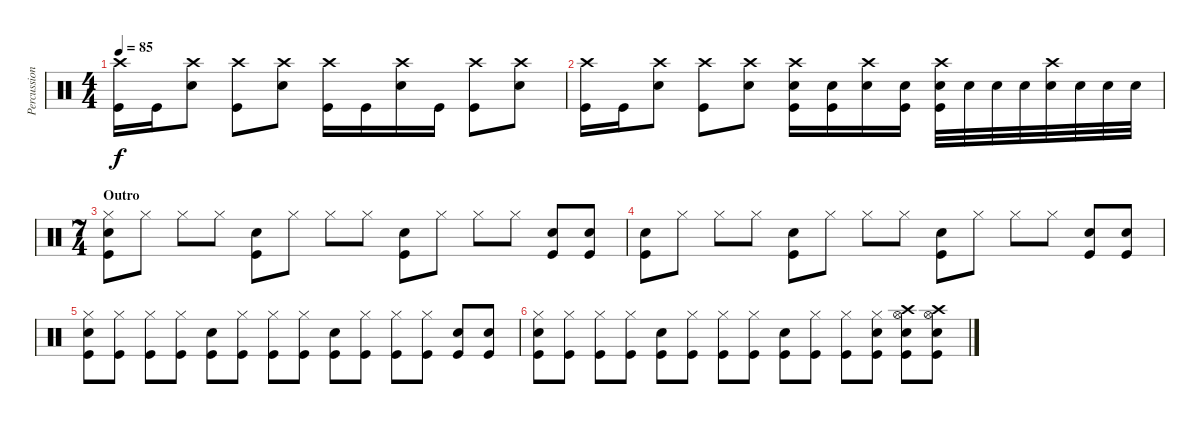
\track ("Percussion" "Percussion") {instrument percussion}
\staff {score}
\articulation defaults
\ts (4 4)
\tempo 85
\clef neutral
\ks c
("Crash high (hit)" "Kick (hit)").16{dy f} "Kick (hit)".16 ("Crash high (hit)" "Snare (hit) 2").8 ("Crash high (hit)" "Kick (hit)").8 ("Crash high (hit)" "Snare (hit) 2").8 ("Crash high (hit)" "Kick (hit)").16 "Kick (hit)".16 ("Crash high (hit)" "Snare (hit) 2").16 "Kick (hit)".16 ("Crash high (hit)" "Kick (hit)").8 ("Crash high (hit)" "Snare (hit) 2").8 |
("Crash high (hit)" "Kick (hit)").16 "Kick (hit)".16 ("Crash high (hit)" "Snare (hit) 2").8 ("Crash high (hit)" "Kick (hit)").8 ("Crash high (hit)" "Snare (hit) 2").8 ("Crash high (hit)" "Snare (hit) 2" "Kick (hit)").16 ("Snare (hit) 2" "Kick (hit)").16 ("Crash high (hit)" "Snare (hit) 2").16 ("Snare (hit) 2" "Kick (hit)").16 ("Crash high (hit)" "Snare (hit) 2" "Kick (hit)").32 "Snare (hit) 2".32 "Snare (hit) 2".32 "Snare (hit) 2".32 ("Crash high (hit)" "Snare (hit) 2").32 "Snare (hit) 2".32 "Snare (hit) 2".32 "Snare (hit) 2".32 |
\ts (7 4)
\section ("" "Outro")
("Hi-Hat (closed)" "Snare (hit) 2" "Kick (hit)").8 "Hi-Hat (closed)".8 "Hi-Hat (closed)".8 "Hi-Hat (closed)".8 ("Snare (hit) 2" "Kick (hit)").8 "Hi-Hat (closed)".8 "Hi-Hat (closed)".8 "Hi-Hat (closed)".8 ("Snare (hit) 2" "Kick (hit)").8 "Hi-Hat (closed)".8 "Hi-Hat (closed)".8 "Hi-Hat (closed)".8 ("Snare (hit) 2" "Kick (hit)").8 ("Snare (hit) 2" "Kick (hit)").8 |
("Snare (hit) 2" "Kick (hit)").8 "Hi-Hat (closed)".8 "Hi-Hat (closed)".8 "Hi-Hat (closed)".8 ("Snare (hit) 2" "Kick (hit)").8 "Hi-Hat (closed)".8 "Hi-Hat (closed)".8 "Hi-Hat (closed)".8 ("Snare (hit) 2" "Kick (hit)").8 "Hi-Hat (closed)".8 "Hi-Hat (closed)".8 "Hi-Hat (closed)".8 ("Snare (hit) 2" "Kick (hit)").8 ("Snare (hit) 2" "Kick (hit)").8 |
("Hi-Hat (closed)" "Snare (hit) 2" "Kick (hit)").8 ("Hi-Hat (closed)" "Kick (hit)").8 ("Hi-Hat (closed)" "Kick (hit)").8 ("Hi-Hat (closed)" "Kick (hit)").8 ("Snare (hit) 2" "Kick (hit)").8 ("Hi-Hat (closed)" "Kick (hit)").8 ("Hi-Hat (closed)" "Kick (hit)").8 ("Hi-Hat (closed)" "Kick (hit)").8 ("Snare (hit) 2" "Kick (hit)").8 ("Hi-Hat (closed)" "Kick (hit)").8 ("Hi-Hat (closed)" "Kick (hit)").8 ("Hi-Hat (closed)" "Kick (hit)").8 ("Snare (hit) 2" "Kick (hit)").8 ("Snare (hit) 2" "Kick (hit)").8 |
("Hi-Hat (closed)" "Snare (hit) 2" "Kick (hit)").8 ("Hi-Hat (closed)" "Kick (hit)").8 ("Hi-Hat (closed)" "Kick (hit)").8 ("Hi-Hat (closed)" "Kick (hit)").8 ("Snare (hit) 2" "Kick (hit)").8 ("Hi-Hat (closed)" "Kick (hit)").8 ("Hi-Hat (closed)" "Kick (hit)").8 ("Hi-Hat (closed)" "Kick (hit)").8 ("Snare (hit) 2" "Kick (hit)").8 ("Hi-Hat (closed)" "Kick (hit)").8 ("Hi-Hat (closed)" "Kick (hit)").8 ("Hi-Hat (closed)" "Snare (hit) 2" "Kick (hit)").8 ("Crash high (hit)" "Hi-Hat (open)" "Snare (hit) 2" "Kick (hit)").8 ("Crash high (hit)" "Hi-Hat (open)" "Snare (hit) 2" "Kick (hit)").8
